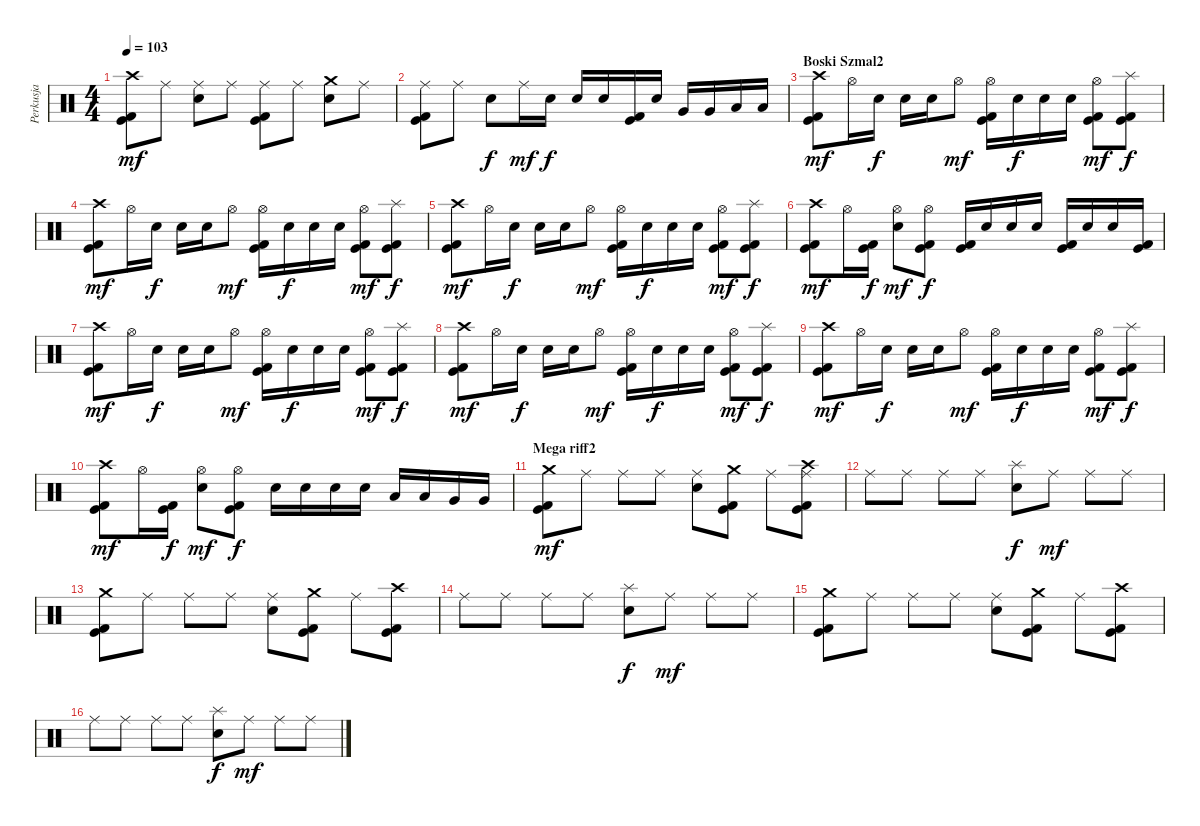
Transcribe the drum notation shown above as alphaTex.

\track ("Perkusja" "Perkusja") {instrument percussion}
\staff {score}
\articulation defaults
\ts (4 4)
\tempo 103
\clef neutral
\ks c
("Kick (hit) 2" "Kick (hit)" "Crash high (hit)").8{dy mf} "Ride (middle)".8 ("Snare (hit) 2" "Ride (middle)").8 "Ride (middle)".8 ("Kick (hit) 2" "Kick (hit)" "Ride (middle)").8 "Ride (middle)".8 ("Snare (hit) 2" "Crash medium (hit)").8 "Ride (middle)".8 |
("Kick (hit) 2" "Kick (hit)" "Ride (middle)").8 "Ride (middle)".8 "Snare (hit) 2".8{dy f} "Ride (middle)".16{dy mf} "Snare (hit) 2".16{dy f} "Snare (hit) 2".16 "Snare (hit) 2".16 ("Kick (hit) 2" "Kick (hit)").16 "Snare (hit) 2".16 "Very Low Tom (hit)".16 "Very Low Tom (hit)".16 "Low Floor Tom (hit)".16 "Low Floor Tom (hit)".16 |
\section ("" "Boski Szmal2")
("Kick (hit) 2" "Kick (hit)" "Crash high (hit)").8{dy mf} "Hi-Hat (open)".16 "Snare (hit) 2".16{dy f} "Snare (hit) 2".16 "Snare (hit) 2".16 "Hi-Hat (open)".8{dy mf} ("Kick (hit) 2" "Kick (hit)" "Hi-Hat (open)").16 "Snare (hit) 2".16{dy f} "Snare (hit) 2".16 "Snare (hit) 2".16 ("Kick (hit) 2" "Kick (hit)" "Hi-Hat (open)").8{dy mf} ("Kick (hit)" "Kick (hit) 2" "Splash (hit)").8{dy f} |
("Kick (hit) 2" "Kick (hit)" "Crash high (hit)").8{dy mf} "Hi-Hat (open)".16 "Snare (hit) 2".16{dy f} "Snare (hit) 2".16 "Snare (hit) 2".16 "Hi-Hat (open)".8{dy mf} ("Kick (hit) 2" "Kick (hit)" "Hi-Hat (open)").16 "Snare (hit) 2".16{dy f} "Snare (hit) 2".16 "Snare (hit) 2".16 ("Kick (hit) 2" "Kick (hit)" "Hi-Hat (open)").8{dy mf} ("Kick (hit)" "Kick (hit) 2" "Splash (hit)").8{dy f} |
("Kick (hit) 2" "Kick (hit)" "Crash high (hit)").8{dy mf} "Hi-Hat (open)".16 "Snare (hit) 2".16{dy f} "Snare (hit) 2".16 "Snare (hit) 2".16 "Hi-Hat (open)".8{dy mf} ("Kick (hit) 2" "Kick (hit)" "Hi-Hat (open)").16 "Snare (hit) 2".16{dy f} "Snare (hit) 2".16 "Snare (hit) 2".16 ("Kick (hit) 2" "Kick (hit)" "Hi-Hat (open)").8{dy mf} ("Kick (hit)" "Kick (hit) 2" "Splash (hit)").8{dy f} |
("Kick (hit) 2" "Kick (hit)" "Crash high (hit)").8{dy mf} "Hi-Hat (open)".16 ("Kick (hit) 2" "Kick (hit)").16{dy f} ("Snare (hit) 2" "Hi-Hat (open)").8{dy mf} ("Kick (hit) 2" "Kick (hit)" "Hi-Hat (open)").8{dy f} ("Kick (hit) 2" "Kick (hit)").16 "Snare (hit) 2".16 "Snare (hit) 2".16 "Snare (hit) 2".16 ("Kick (hit)" "Kick (hit) 2").16 "Snare (hit) 2".16 "Snare (hit) 2".16 ("Kick (hit) 2" "Kick (hit)").16 |
("Kick (hit) 2" "Kick (hit)" "Crash high (hit)").8{dy mf} "Hi-Hat (open)".16 "Snare (hit) 2".16{dy f} "Snare (hit) 2".16 "Snare (hit) 2".16 "Hi-Hat (open)".8{dy mf} ("Kick (hit) 2" "Kick (hit)" "Hi-Hat (open)").16 "Snare (hit) 2".16{dy f} "Snare (hit) 2".16 "Snare (hit) 2".16 ("Kick (hit) 2" "Kick (hit)" "Hi-Hat (open)").8{dy mf} ("Kick (hit)" "Kick (hit) 2" "Splash (hit)").8{dy f} |
("Kick (hit) 2" "Kick (hit)" "Crash high (hit)").8{dy mf} "Hi-Hat (open)".16 "Snare (hit) 2".16{dy f} "Snare (hit) 2".16 "Snare (hit) 2".16 "Hi-Hat (open)".8{dy mf} ("Kick (hit) 2" "Kick (hit)" "Hi-Hat (open)").16 "Snare (hit) 2".16{dy f} "Snare (hit) 2".16 "Snare (hit) 2".16 ("Kick (hit) 2" "Kick (hit)" "Hi-Hat (open)").8{dy mf} ("Kick (hit)" "Kick (hit) 2" "Splash (hit)").8{dy f} |
("Kick (hit) 2" "Kick (hit)" "Crash high (hit)").8{dy mf} "Hi-Hat (open)".16 "Snare (hit) 2".16{dy f} "Snare (hit) 2".16 "Snare (hit) 2".16 "Hi-Hat (open)".8{dy mf} ("Kick (hit) 2" "Kick (hit)" "Hi-Hat (open)").16 "Snare (hit) 2".16{dy f} "Snare (hit) 2".16 "Snare (hit) 2".16 ("Kick (hit) 2" "Kick (hit)" "Hi-Hat (open)").8{dy mf} ("Kick (hit)" "Kick (hit) 2" "Splash (hit)").8{dy f} |
("Kick (hit) 2" "Kick (hit)" "Crash high (hit)").8{dy mf} "Hi-Hat (open)".16 ("Kick (hit) 2" "Kick (hit)").16{dy f} ("Snare (hit) 2" "Hi-Hat (open)").8{dy mf} ("Kick (hit) 2" "Kick (hit)" "Hi-Hat (open)").8{dy f} "Snare (hit) 2".16 "Snare (hit) 2".16 "Snare (hit) 2".16 "Snare (hit) 2".16 "Low Tom (hit)".16 "Low Tom (hit)".16 "Very Low Tom (hit)".16 "Very Low Tom (hit)".16 |
\section ("" "Mega riff2")
("Kick (hit) 2" "Kick (hit)" "Crash medium (hit)").8{dy mf} "Ride (middle)".8 "Ride (middle)".8 "Ride (middle)".8 ("Snare (hit) 2" "Ride (middle)").8 ("Kick (hit) 2" "Kick (hit)" "Crash medium (hit)").8 "Ride (middle)".8 ("Kick (hit) 2" "Kick (hit)" "Ride (middle)" "Crash high (hit)").8 |
"Ride (middle)".8 "Ride (middle)".8 "Ride (middle)".8 "Ride (middle)".8 ("Snare (hit) 2" "Splash (hit)").8{dy f} "Ride (middle)".8{dy mf} "Ride (middle)".8 "Ride (middle)".8 |
("Kick (hit) 2" "Kick (hit)" "Crash medium (hit)").8 "Ride (middle)".8 "Ride (middle)".8 "Ride (middle)".8 ("Snare (hit) 2" "Ride (middle)").8 ("Kick (hit) 2" "Kick (hit)" "Crash medium (hit)").8 "Ride (middle)".8 ("Kick (hit) 2" "Kick (hit)" "Crash high (hit)").8 |
"Ride (middle)".8 "Ride (middle)".8 "Ride (middle)".8 "Ride (middle)".8 ("Snare (hit) 2" "Splash (hit)").8{dy f} "Ride (middle)".8{dy mf} "Ride (middle)".8 "Ride (middle)".8 |
("Kick (hit) 2" "Kick (hit)" "Crash medium (hit)").8 "Ride (middle)".8 "Ride (middle)".8 "Ride (middle)".8 ("Snare (hit) 2" "Ride (middle)").8 ("Kick (hit) 2" "Kick (hit)" "Crash medium (hit)").8 "Ride (middle)".8 ("Kick (hit) 2" "Kick (hit)" "Crash high (hit)").8 |
"Ride (middle)".8 "Ride (middle)".8 "Ride (middle)".8 "Ride (middle)".8 ("Snare (hit) 2" "Splash (hit)").8{dy f} "Ride (middle)".8{dy mf} "Ride (middle)".8 "Ride (middle)".8
